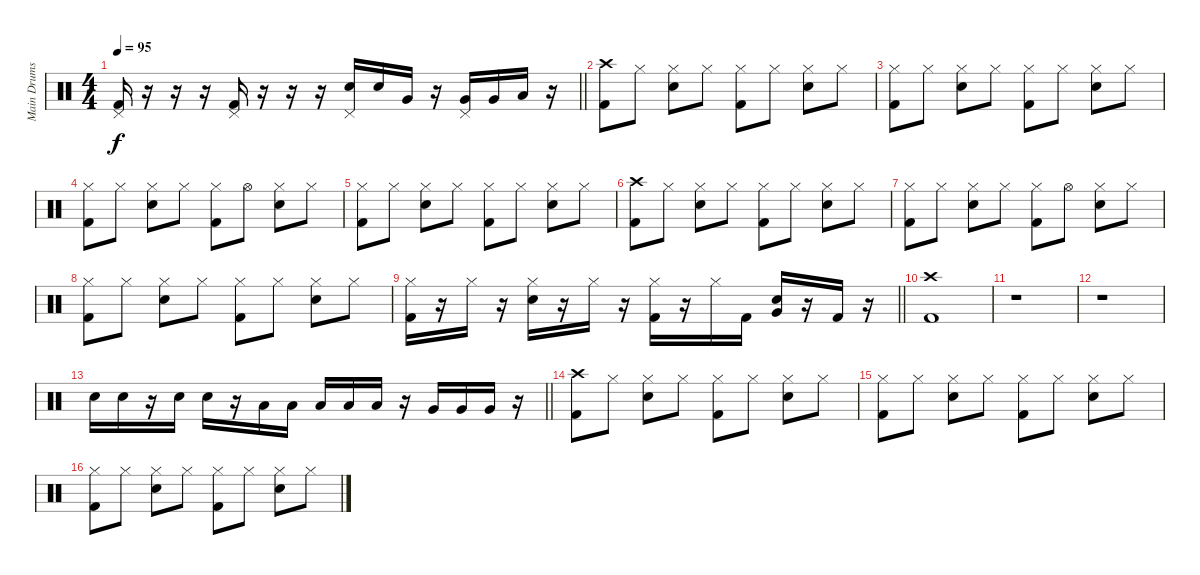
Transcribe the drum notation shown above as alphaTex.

\track ("Main Drums" "Main Drums") {instrument percussion}
\staff {score}
\articulation defaults
\ts (4 4)
\tempo 95
\clef neutral
\barLineRight lightlight
\ks c
("Pedal Hi-Hat (hit)" "Kick (hit) 2").16{dy f} r.16 r.16 r.16 ("Pedal Hi-Hat (hit)" "Kick (hit) 2").16 r.16 r.16 r.16 ("Pedal Hi-Hat (hit)" "Electric Snare (hit)").16 "Electric Snare (hit)".16 "Very Low Tom (hit)".16 r.16 ("Pedal Hi-Hat (hit)" "Very Low Tom (hit)").16 "Very Low Tom (hit)".16 "Low Floor Tom (hit)".16 r.16 |
("Crash high (hit)" "Kick (hit) 2").8 "Hi-Hat (closed)".8 ("Hi-Hat (closed)" "Electric Snare (hit)").8 "Hi-Hat (closed)".8 ("Hi-Hat (closed)" "Kick (hit) 2").8 "Hi-Hat (closed)".8 ("Hi-Hat (closed)" "Electric Snare (hit)").8 "Hi-Hat (closed)".8 |
("Hi-Hat (closed)" "Kick (hit) 2").8 "Hi-Hat (closed)".8 ("Hi-Hat (closed)" "Electric Snare (hit)").8 "Hi-Hat (closed)".8 ("Hi-Hat (closed)" "Kick (hit) 2").8 "Hi-Hat (closed)".8 ("Hi-Hat (closed)" "Electric Snare (hit)").8 "Hi-Hat (closed)".8 |
("Hi-Hat (closed)" "Kick (hit) 2").8 "Hi-Hat (closed)".8 ("Hi-Hat (closed)" "Electric Snare (hit)").8 "Hi-Hat (closed)".8 ("Hi-Hat (closed)" "Kick (hit) 2").8 "Hi-Hat (open)".8 ("Hi-Hat (closed)" "Electric Snare (hit)").8 "Hi-Hat (closed)".8 |
("Hi-Hat (closed)" "Kick (hit) 2").8 "Hi-Hat (closed)".8 ("Hi-Hat (closed)" "Electric Snare (hit)").8 "Hi-Hat (closed)".8 ("Hi-Hat (closed)" "Kick (hit) 2").8 "Hi-Hat (closed)".8 ("Hi-Hat (closed)" "Electric Snare (hit)").8 "Hi-Hat (closed)".8 |
("Crash high (hit)" "Kick (hit) 2").8 "Hi-Hat (closed)".8 ("Hi-Hat (closed)" "Electric Snare (hit)").8 "Hi-Hat (closed)".8 ("Hi-Hat (closed)" "Kick (hit) 2").8 "Hi-Hat (closed)".8 ("Hi-Hat (closed)" "Electric Snare (hit)").8 "Hi-Hat (closed)".8 |
("Hi-Hat (closed)" "Kick (hit) 2").8 "Hi-Hat (closed)".8 ("Hi-Hat (closed)" "Electric Snare (hit)").8 "Hi-Hat (closed)".8 ("Hi-Hat (closed)" "Kick (hit) 2").8 "Hi-Hat (open)".8 ("Hi-Hat (closed)" "Electric Snare (hit)").8 "Hi-Hat (closed)".8 |
("Hi-Hat (closed)" "Kick (hit) 2").8 "Hi-Hat (closed)".8 ("Hi-Hat (closed)" "Electric Snare (hit)").8 "Hi-Hat (closed)".8 ("Hi-Hat (closed)" "Kick (hit) 2").8 "Hi-Hat (closed)".8 ("Hi-Hat (closed)" "Electric Snare (hit)").8 "Hi-Hat (closed)".8 |
\barLineRight lightlight
("Hi-Hat (closed)" "Kick (hit) 2").16 r.16 "Hi-Hat (closed)".16 r.16 ("Hi-Hat (closed)" "Electric Snare (hit)").16 r.16 "Hi-Hat (closed)".16 r.16 ("Hi-Hat (closed)" "Kick (hit) 2").16 r.16 "Hi-Hat (closed)".16 "Kick (hit) 2".16 ("Very Low Tom (hit)" "Electric Snare (hit)").16 r.16 "Kick (hit) 2".16 r.16 |
("Crash high (hit)" "Kick (hit) 2").1 |
r.1 |
r.1 |
\barLineRight lightlight "Electric Snare (hit)".16 "Electric Snare (hit)".16
r.16 "Electric Snare (hit)".16 "Electric Snare (hit)".16 r.16 "Low Tom (hit)".16 "Low Tom (hit)".16 "Low Tom (hit)".16 "Low Tom (hit)".16 "Low Tom (hit)".16 r.16 "Very Low Tom (hit)".16 "Very Low Tom (hit)".16 "Very Low Tom (hit)".16 r.16 |
("Crash high (hit)" "Kick (hit) 2").8 "Hi-Hat (closed)".8 ("Hi-Hat (closed)" "Electric Snare (hit)").8 "Hi-Hat (closed)".8 ("Hi-Hat (closed)" "Kick (hit) 2").8 "Hi-Hat (closed)".8 ("Hi-Hat (closed)" "Electric Snare (hit)").8 "Hi-Hat (closed)".8 |
("Hi-Hat (closed)" "Kick (hit) 2").8 "Hi-Hat (closed)".8 ("Hi-Hat (closed)" "Electric Snare (hit)").8 "Hi-Hat (closed)".8 ("Hi-Hat (closed)" "Kick (hit) 2").8 "Hi-Hat (closed)".8 ("Hi-Hat (closed)" "Electric Snare (hit)").8 "Hi-Hat (closed)".8 |
("Hi-Hat (closed)" "Kick (hit) 2").8 "Hi-Hat (closed)".8 ("Hi-Hat (closed)" "Electric Snare (hit)").8 "Hi-Hat (closed)".8 ("Hi-Hat (closed)" "Kick (hit) 2").8 "Hi-Hat (closed)".8 ("Hi-Hat (closed)" "Electric Snare (hit)").8 "Hi-Hat (closed)".8
